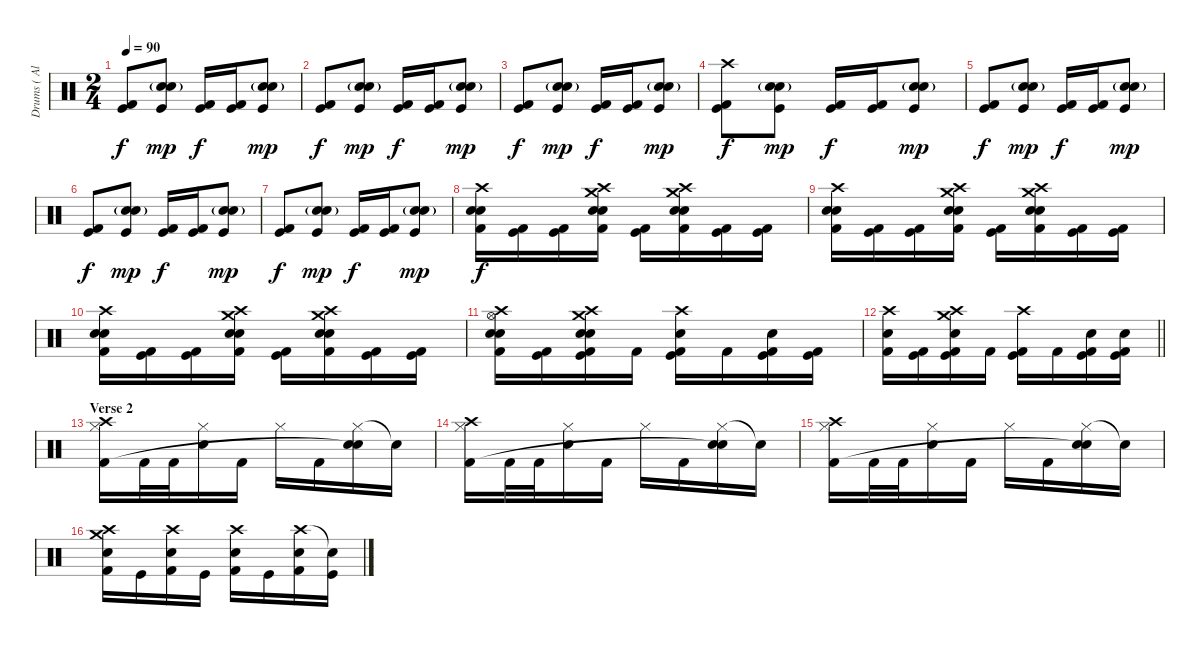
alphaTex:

\track ("Drums ( Alex Holzwarth)" "Drums ( Al") {instrument percussion}
\staff {score}
\articulation defaults
\ts (2 4)
\tempo 90
\clef neutral
\ks c
("Kick (hit) 2" "Kick (hit)").8{dy f} ("Electric Snare (hit)"{g} "Snare (hit) 2" "Kick (hit)").8{dy mp} ("Kick (hit) 2" "Kick (hit)").16{dy f} ("Kick (hit) 2" "Kick (hit)").16 ("Electric Snare (hit)"{g} "Snare (hit) 2" "Kick (hit)").8{dy mp} |
("Kick (hit) 2" "Kick (hit)").8{dy f} ("Electric Snare (hit)"{g} "Snare (hit) 2" "Kick (hit)").8{dy mp} ("Kick (hit) 2" "Kick (hit)").16{dy f} ("Kick (hit) 2" "Kick (hit)").16 ("Electric Snare (hit)"{g} "Snare (hit) 2" "Kick (hit)").8{dy mp} |
("Kick (hit) 2" "Kick (hit)").8{dy f} ("Electric Snare (hit)"{g} "Snare (hit) 2" "Kick (hit)").8{dy mp} ("Kick (hit) 2" "Kick (hit)").16{dy f} ("Kick (hit) 2" "Kick (hit)").16 ("Electric Snare (hit)"{g} "Snare (hit) 2" "Kick (hit)").8{dy mp} |
("Crash high (hit)" "Kick (hit) 2" "Kick (hit)").8{dy f} ("Electric Snare (hit)"{g} "Snare (hit) 2" "Kick (hit)").8{dy mp} ("Kick (hit) 2" "Kick (hit)").16{dy f} ("Kick (hit) 2" "Kick (hit)").16 ("Electric Snare (hit)"{g} "Snare (hit) 2" "Kick (hit)").8{dy mp} |
("Kick (hit) 2" "Kick (hit)").8{dy f} ("Electric Snare (hit)"{g} "Snare (hit) 2" "Kick (hit)").8{dy mp} ("Kick (hit) 2" "Kick (hit)").16{dy f} ("Kick (hit) 2" "Kick (hit)").16 ("Electric Snare (hit)"{g} "Snare (hit) 2" "Kick (hit)").8{dy mp} |
("Kick (hit) 2" "Kick (hit)").8{dy f} ("Electric Snare (hit)"{g} "Snare (hit) 2" "Kick (hit)").8{dy mp} ("Kick (hit) 2" "Kick (hit)").16{dy f} ("Kick (hit) 2" "Kick (hit)").16 ("Electric Snare (hit)"{g} "Snare (hit) 2" "Kick (hit)").8{dy mp} |
("Kick (hit) 2" "Kick (hit)").8{dy f} ("Electric Snare (hit)"{g} "Snare (hit) 2" "Kick (hit)").8{dy mp} ("Kick (hit) 2" "Kick (hit)").16{dy f} ("Kick (hit) 2" "Kick (hit)").16 ("Electric Snare (hit)"{g} "Snare (hit) 2" "Kick (hit)").8{dy mp} |
("Crash high (hit)" "Electric Snare (hit)" "Snare (hit) 2" "Kick (hit) 2").16{dy f} ("Kick (hit) 2" "Kick (hit)").16 ("Kick (hit) 2" "Kick (hit)").16 ("Crash high (hit)" "Crash medium (hit)" "Electric Snare (hit)" "Snare (hit) 2" "Kick (hit) 2").16 ("Kick (hit) 2" "Kick (hit)").16 ("Crash high (hit)" "Crash medium (hit)" "Electric Snare (hit)" "Snare (hit) 2" "Kick (hit) 2").16 ("Kick (hit) 2" "Kick (hit)").16 ("Kick (hit) 2" "Kick (hit)").16 |
("Crash high (hit)" "Electric Snare (hit)" "Snare (hit) 2" "Kick (hit) 2").16 ("Kick (hit) 2" "Kick (hit)").16 ("Kick (hit) 2" "Kick (hit)").16 ("Crash high (hit)" "Crash medium (hit)" "Electric Snare (hit)" "Snare (hit) 2" "Kick (hit) 2").16 ("Kick (hit) 2" "Kick (hit)").16 ("Crash high (hit)" "Crash medium (hit)" "Electric Snare (hit)" "Snare (hit) 2" "Kick (hit) 2").16 ("Kick (hit) 2" "Kick (hit)").16 ("Kick (hit) 2" "Kick (hit)").16 |
("Crash high (hit)" "Electric Snare (hit)" "Snare (hit) 2" "Kick (hit) 2").16 ("Kick (hit) 2" "Kick (hit)").16 ("Kick (hit) 2" "Kick (hit)").16 ("Crash high (hit)" "Crash medium (hit)" "Electric Snare (hit)" "Snare (hit) 2" "Kick (hit) 2").16 ("Kick (hit) 2" "Kick (hit)").16 ("Crash high (hit)" "Crash medium (hit)" "Electric Snare (hit)" "Snare (hit) 2" "Kick (hit) 2").16 ("Kick (hit) 2" "Kick (hit)").16 ("Kick (hit) 2" "Kick (hit)").16 |
("Crash high (hit)" "Hi-Hat (open)" "Electric Snare (hit)" "Snare (hit) 2" "Kick (hit) 2").16 ("Kick (hit) 2" "Kick (hit)").16 ("Crash high (hit)" "Crash medium (hit)" "Electric Snare (hit)" "Snare (hit) 2" "Kick (hit) 2" "Kick (hit)").16 "Kick (hit) 2".16 ("Crash high (hit)" "Snare (hit) 2" "Kick (hit) 2" "Kick (hit)").16 "Kick (hit) 2".16 ("Snare (hit) 2" "Kick (hit) 2" "Kick (hit)").16 ("Kick (hit) 2" "Kick (hit)").16 |
\barLineRight lightlight
("Crash high (hit)" "Electric Snare (hit)" "Kick (hit) 2").16 ("Kick (hit) 2" "Kick (hit)").16 ("Crash high (hit)" "Crash medium (hit)" "Snare (hit) 2" "Kick (hit) 2" "Kick (hit)").16 "Kick (hit) 2".16 ("Crash high (hit)" "Kick (hit) 2" "Kick (hit)").16 "Kick (hit) 2".16 ("Electric Snare (hit)" "Kick (hit) 2" "Kick (hit)").16 ("Electric Snare (hit)" "Kick (hit) 2" "Kick (hit)").16 |
\section ("" "Verse 2")
("Crash high (hit)" "Hi-Hat (closed)" "Kick (hit) 2").16 "Kick (hit) 2".32 "Kick (hit) 2".32 ("Hi-Hat (closed)" "Electric Snare (hit)").16 "Kick (hit) 2".16 "Hi-Hat (closed)".16 "Kick (hit) 2".16 ("Hi-Hat (closed)" "Electric Snare (hit)" "Snare (hit)"{t}).16 "Snare (hit)"{t}.16 |
("Crash high (hit)" "Hi-Hat (closed)" "Kick (hit) 2").16 "Kick (hit) 2".32 "Kick (hit) 2".32 ("Hi-Hat (closed)" "Electric Snare (hit)").16 "Kick (hit) 2".16 "Hi-Hat (closed)".16 "Kick (hit) 2".16 ("Hi-Hat (closed)" "Electric Snare (hit)" "Snare (hit)"{t}).16 "Snare (hit)"{t}.16 |
("Crash high (hit)" "Hi-Hat (closed)" "Kick (hit) 2").16 "Kick (hit) 2".32 "Kick (hit) 2".32 ("Hi-Hat (closed)" "Electric Snare (hit)").16 "Kick (hit) 2".16 "Hi-Hat (closed)".16 "Kick (hit) 2".16 ("Hi-Hat (closed)" "Electric Snare (hit)" "Snare (hit)"{t}).16 "Snare (hit)"{t}.16 |
("Crash high (hit)" "Crash medium (hit)" "Snare (hit) 2" "Kick (hit) 2").16 "Kick (hit)".16 ("Crash high (hit)" "Snare (hit) 2" "Kick (hit) 2").16 "Kick (hit)".16 ("Crash high (hit)" "Snare (hit) 2" "Kick (hit) 2").16 "Kick (hit)".16 ("Crash high (hit)" "Snare (hit) 2" "Kick (hit) 2").16 ("Snare (hit)"{t} "Kick (hit)").16
